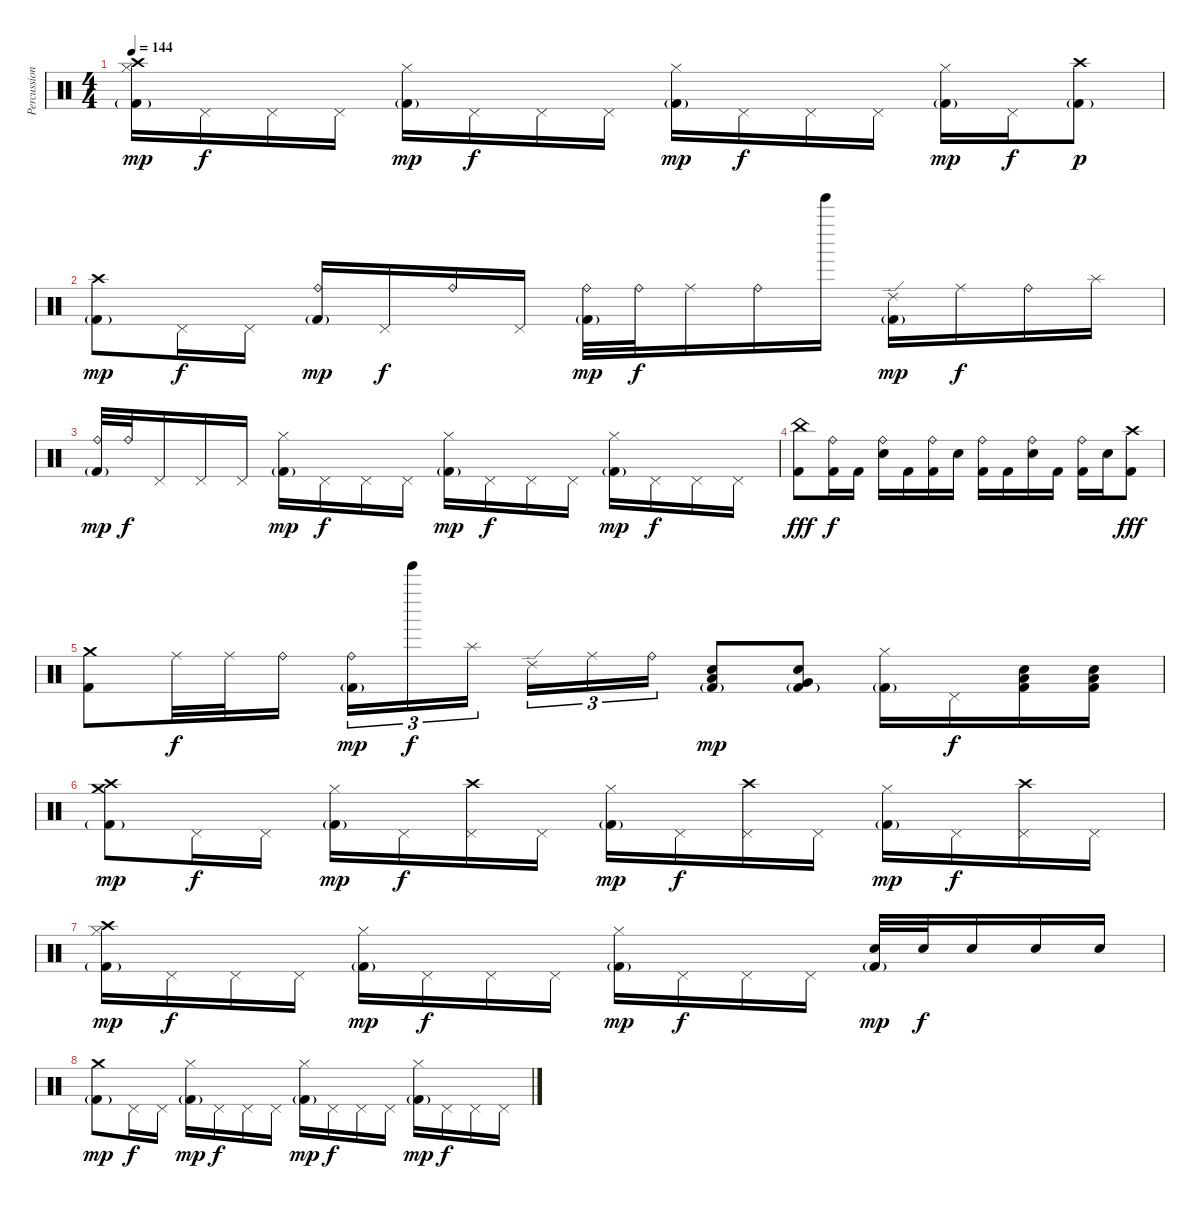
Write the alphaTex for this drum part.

\track ("Percussion" "Percussion") {instrument percussion}
\staff {score}
\articulation defaults
\ts (4 4)
\tempo 144
\clef neutral
\ks c
("Crash high (hit)" "Hi-Hat (closed)" "Kick (hit) 2"{g}).16{dy mp} "Pedal Hi-Hat (hit)".16{dy f} "Pedal Hi-Hat (hit)".16 "Pedal Hi-Hat (hit)".16 ("Hi-Hat (closed)" "Kick (hit) 2"{g}).16{dy mp} "Pedal Hi-Hat (hit)".16{dy f} "Pedal Hi-Hat (hit)".16 "Pedal Hi-Hat (hit)".16 ("Hi-Hat (closed)" "Kick (hit) 2"{g}).16{dy mp} "Pedal Hi-Hat (hit)".16{dy f} "Pedal Hi-Hat (hit)".16 "Pedal Hi-Hat (hit)".16 ("Hi-Hat (closed)" "Kick (hit) 2"{g}).16{dy mp} "Pedal Hi-Hat (hit)".16{dy f} ("Crash high (hit)" "Kick (hit) 2"{g}).8{dy p} |
("Crash high (hit)" "Kick (hit) 2"{g}).8{dy mp} "Pedal Hi-Hat (hit)".16{dy f} "Pedal Hi-Hat (hit)".16 ("Ride (bell)" "Kick (hit) 2"{g}).16{dy mp} "Pedal Hi-Hat (hit)".16{dy f} "Ride (bell)".16 "Pedal Hi-Hat (hit)".16 ("Ride (bell)" "Kick (hit) 2"{g}).32{dy mp} "Ride (bell)".32{dy f} "Ride (middle)".16 "Ride (bell)".16 "Tinkle Bell (hit)".16 ("Ride (edge) 2" "Kick (hit) 2"{g}).16{dy mp} "Ride (middle)".16{dy f} "Ride (bell)".16 "Splash (hit)".16 |
("Ride (bell)" "Kick (hit) 2"{g}).32{dy mp} "Ride (bell)".32{dy f} "Pedal Hi-Hat (hit)".16 "Pedal Hi-Hat (hit)".16 "Pedal Hi-Hat (hit)".16 ("Hi-Hat (closed)" "Kick (hit) 2"{g}).16{dy mp} "Pedal Hi-Hat (hit)".16{dy f} "Pedal Hi-Hat (hit)".16 "Pedal Hi-Hat (hit)".16 ("Hi-Hat (closed)" "Kick (hit) 2"{g}).16{dy mp} "Pedal Hi-Hat (hit)".16{dy f} "Pedal Hi-Hat (hit)".16 "Pedal Hi-Hat (hit)".16 ("Hi-Hat (closed)" "Kick (hit) 2"{g}).16{dy mp} "Pedal Hi-Hat (hit)".16{dy f} "Pedal Hi-Hat (hit)".16 "Pedal Hi-Hat (hit)".16 |
("China (hit)" "Kick (hit) 2").8{dy fff} ("Ride (bell)" "Kick (hit) 2").16{dy f} "Kick (hit) 2".16 ("Ride (bell)" "Electric Snare (hit)").16 "Kick (hit) 2".16 ("Ride (bell)" "Kick (hit) 2").16 "Electric Snare (hit)".16 ("Ride (bell)" "Kick (hit) 2").16 "Kick (hit) 2".16 ("Ride (bell)" "Electric Snare (hit)").16 "Kick (hit) 2".16 ("Ride (bell)" "Kick (hit) 2").16 "Electric Snare (hit)".16 ("Crash high (hit)" "Kick (hit) 2").8{dy fff} |
("Crash medium (hit)" "Kick (hit) 2").8 "Ride (middle)".32{dy f} "Ride (middle)".32 "Ride (bell)".16 ("Ride (bell)" "Kick (hit) 2"{g}).16{tu (3 2) dy mp} "Tinkle Bell (hit)".16{tu (3 2) dy f} "Splash (hit)".16{tu (3 2)} "Ride (edge) 2".16{tu (3 2)} "Ride (middle)".16{tu (3 2)} "Ride (bell)".16{tu (3 2)} ("Low Tom (hit)" "Electric Snare (hit)" "Kick (hit) 2"{g}).8{dy mp} ("Very Low Tom (hit)" "Electric Snare (hit)" "Kick (hit) 2"{g}).8 ("Hi-Hat (closed)" "Kick (hit) 2"{g}).16 "Pedal Hi-Hat (hit)".16{dy f} ("Low Tom (hit)" "Electric Snare (hit)" "Kick (hit) 2").16 ("Low Tom (hit)" "Electric Snare (hit)" "Kick (hit) 2").16 |
("Crash high (hit)" "Crash medium (hit)" "Kick (hit) 2"{g}).8{dy mp} "Pedal Hi-Hat (hit)".16{dy f} "Pedal Hi-Hat (hit)".16 ("Hi-Hat (closed)" "Kick (hit) 2"{g}).16{dy mp} "Pedal Hi-Hat (hit)".16{dy f} ("Crash high (hit)" "Pedal Hi-Hat (hit)").16 "Pedal Hi-Hat (hit)".16 ("Hi-Hat (closed)" "Kick (hit) 2"{g}).16{dy mp} "Pedal Hi-Hat (hit)".16{dy f} ("Crash high (hit)" "Pedal Hi-Hat (hit)").16 "Pedal Hi-Hat (hit)".16 ("Hi-Hat (closed)" "Kick (hit) 2"{g}).16{dy mp} "Pedal Hi-Hat (hit)".16{dy f} ("Crash high (hit)" "Pedal Hi-Hat (hit)").16 "Pedal Hi-Hat (hit)".16 |
("Crash high (hit)" "Hi-Hat (closed)" "Kick (hit) 2"{g}).16{dy mp} "Pedal Hi-Hat (hit)".16{dy f} "Pedal Hi-Hat (hit)".16 "Pedal Hi-Hat (hit)".16 ("Hi-Hat (closed)" "Kick (hit) 2"{g}).16{dy mp} "Pedal Hi-Hat (hit)".16{dy f} "Pedal Hi-Hat (hit)".16 "Pedal Hi-Hat (hit)".16 ("Hi-Hat (closed)" "Kick (hit) 2"{g}).16{dy mp} "Pedal Hi-Hat (hit)".16{dy f} "Pedal Hi-Hat (hit)".16 "Pedal Hi-Hat (hit)".16 ("Electric Snare (hit)" "Kick (hit) 2"{g}).32{dy mp} "Electric Snare (hit)".32{dy f} "Electric Snare (hit)".16 "Electric Snare (hit)".16 "Electric Snare (hit)".16 |
("Crash medium (hit)" "Kick (hit) 2"{g}).8{dy mp} "Pedal Hi-Hat (hit)".16{dy f} "Pedal Hi-Hat (hit)".16 ("Hi-Hat (closed)" "Kick (hit) 2"{g}).16{dy mp} "Pedal Hi-Hat (hit)".16{dy f} "Pedal Hi-Hat (hit)".16 "Pedal Hi-Hat (hit)".16 ("Hi-Hat (closed)" "Kick (hit) 2"{g}).16{dy mp} "Pedal Hi-Hat (hit)".16{dy f} "Pedal Hi-Hat (hit)".16 "Pedal Hi-Hat (hit)".16 ("Hi-Hat (closed)" "Kick (hit) 2"{g}).16{dy mp} "Pedal Hi-Hat (hit)".16{dy f} "Pedal Hi-Hat (hit)".16 "Pedal Hi-Hat (hit)".16
